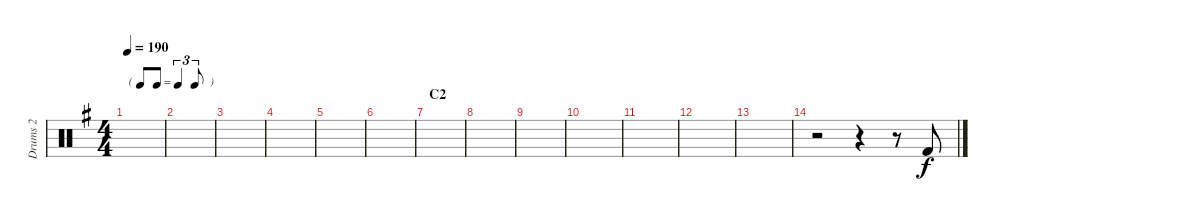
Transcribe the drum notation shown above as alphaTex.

\track ("Drums 2" "Drums 2") {instrument percussion}
\staff {score}
\articulation defaults
\ts (4 4)
\tf triplet8th
\tempo 190
\clef neutral
\ks g
|
|
|
|
|
|
\section ("" "C2")
|
|
|
|
|
|
|
r.2 r.4 r.8 "Kick (hit) 2".8
